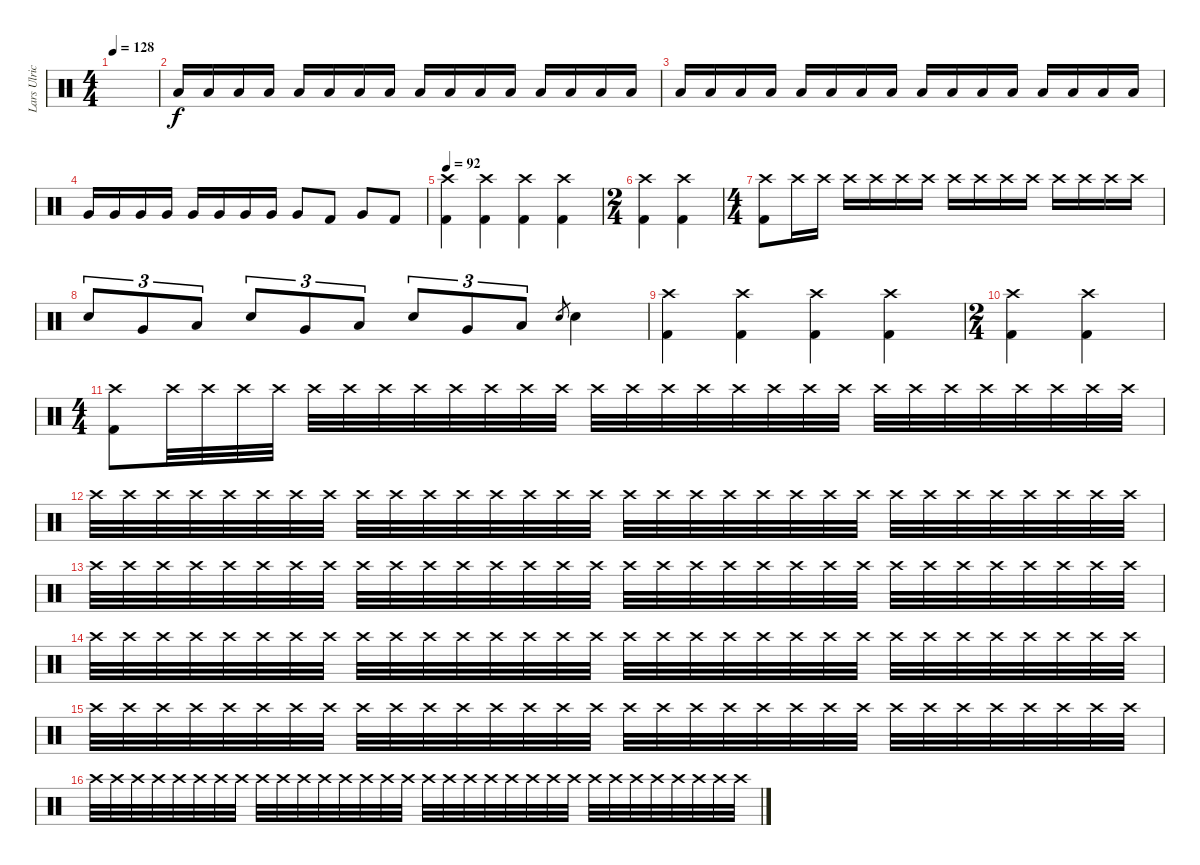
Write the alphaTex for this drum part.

\track ("Lars Ulrich" "Lars Ulric") {instrument percussion}
\staff {score}
\articulation defaults
\ts (4 4)
\tempo 128
\clef neutral
\ks c
|
"Low Floor Tom (hit)".16 "Low Floor Tom (hit)".16 "Low Floor Tom (hit)".16 "Low Floor Tom (hit)".16 "Low Floor Tom (hit)".16 "Low Floor Tom (hit)".16 "Low Floor Tom (hit)".16 "Low Floor Tom (hit)".16 "Low Floor Tom (hit)".16 "Low Floor Tom (hit)".16 "Low Floor Tom (hit)".16 "Low Floor Tom (hit)".16 "Low Floor Tom (hit)".16 "Low Floor Tom (hit)".16 "Low Floor Tom (hit)".16 "Low Floor Tom (hit)".16 |
"Low Floor Tom (hit)".16 "Low Floor Tom (hit)".16 "Low Floor Tom (hit)".16 "Low Floor Tom (hit)".16 "Low Floor Tom (hit)".16 "Low Floor Tom (hit)".16 "Low Floor Tom (hit)".16 "Low Floor Tom (hit)".16 "Low Floor Tom (hit)".16 "Low Floor Tom (hit)".16 "Low Floor Tom (hit)".16 "Low Floor Tom (hit)".16 "Low Floor Tom (hit)".16 "Low Floor Tom (hit)".16 "Low Floor Tom (hit)".16 "Low Floor Tom (hit)".16 |
"Very Low Tom (hit)".16 "Very Low Tom (hit)".16 "Very Low Tom (hit)".16 "Very Low Tom (hit)".16 "Very Low Tom (hit)".16 "Very Low Tom (hit)".16 "Very Low Tom (hit)".16 "Very Low Tom (hit)".16 "Very Low Tom (hit)".8 "Kick (hit) 2".8 "Very Low Tom (hit)".8 "Kick (hit) 2".8 |
\tempo 92
("Crash high (hit)" "Kick (hit) 2").4 ("Crash high (hit)" "Kick (hit) 2").4 ("Crash high (hit)" "Kick (hit) 2").4 ("Crash high (hit)" "Kick (hit) 2").4 |
\ts (2 4)
("Crash high (hit)" "Kick (hit) 2").4 ("Crash high (hit)" "Kick (hit) 2").4 |
\ts (4 4)
("Crash high (hit)" "Kick (hit) 2").8 "Crash high (hit)".16 "Crash high (hit)".16 "Crash high (hit)".16 "Crash high (hit)".16 "Crash high (hit)".16 "Crash high (hit)".16 "Crash high (hit)".16 "Crash high (hit)".16 "Crash high (hit)".16 "Crash high (hit)".16 "Crash high (hit)".16 "Crash high (hit)".16 "Crash high (hit)".16 "Crash high (hit)".16 |
"Electric Snare (hit)".8{tu (3 2)} "Very Low Tom (hit)".8{tu (3 2)} "Low Floor Tom (hit)".8{tu (3 2)} "Electric Snare (hit)".8{tu (3 2)} "Very Low Tom (hit)".8{tu (3 2)} "Low Floor Tom (hit)".8{tu (3 2)} "Electric Snare (hit)".8{tu (3 2)} "Very Low Tom (hit)".8{tu (3 2)} "Low Floor Tom (hit)".8{tu (3 2)} "Electric Snare (hit)".8{gr} "Electric Snare (hit)".4 |
("Crash high (hit)" "Kick (hit) 2").4 ("Crash high (hit)" "Kick (hit) 2").4 ("Crash high (hit)" "Kick (hit) 2").4 ("Crash high (hit)" "Kick (hit) 2").4 |
\ts (2 4)
("Crash high (hit)" "Kick (hit) 2").4 ("Crash high (hit)" "Kick (hit) 2").4 |
\ts (4 4)
("Crash high (hit)" "Kick (hit) 2").8 "Crash high (hit)".32 "Crash high (hit)".32 "Crash high (hit)".32 "Crash high (hit)".32 "Crash high (hit)".32 "Crash high (hit)".32 "Crash high (hit)".32 "Crash high (hit)".32 "Crash high (hit)".32 "Crash high (hit)".32 "Crash high (hit)".32 "Crash high (hit)".32 "Crash high (hit)".32 "Crash high (hit)".32 "Crash high (hit)".32 "Crash high (hit)".32 "Crash high (hit)".32 "Crash high (hit)".32 "Crash high (hit)".32 "Crash high (hit)".32 "Crash high (hit)".32 "Crash high (hit)".32 "Crash high (hit)".32 "Crash high (hit)".32 "Crash high (hit)".32 "Crash high (hit)".32 "Crash high (hit)".32 "Crash high (hit)".32 |
"Crash high (hit)".32 "Crash high (hit)".32 "Crash high (hit)".32 "Crash high (hit)".32 "Crash high (hit)".32 "Crash high (hit)".32 "Crash high (hit)".32 "Crash high (hit)".32 "Crash high (hit)".32 "Crash high (hit)".32 "Crash high (hit)".32 "Crash high (hit)".32 "Crash high (hit)".32 "Crash high (hit)".32 "Crash high (hit)".32 "Crash high (hit)".32 "Crash high (hit)".32 "Crash high (hit)".32 "Crash high (hit)".32 "Crash high (hit)".32 "Crash high (hit)".32 "Crash high (hit)".32 "Crash high (hit)".32 "Crash high (hit)".32 "Crash high (hit)".32 "Crash high (hit)".32 "Crash high (hit)".32 "Crash high (hit)".32 "Crash high (hit)".32 "Crash high (hit)".32 "Crash high (hit)".32 "Crash high (hit)".32 |
"Crash high (hit)".32 "Crash high (hit)".32 "Crash high (hit)".32 "Crash high (hit)".32 "Crash high (hit)".32 "Crash high (hit)".32 "Crash high (hit)".32 "Crash high (hit)".32 "Crash high (hit)".32 "Crash high (hit)".32 "Crash high (hit)".32 "Crash high (hit)".32 "Crash high (hit)".32 "Crash high (hit)".32 "Crash high (hit)".32 "Crash high (hit)".32 "Crash high (hit)".32 "Crash high (hit)".32 "Crash high (hit)".32 "Crash high (hit)".32 "Crash high (hit)".32 "Crash high (hit)".32 "Crash high (hit)".32 "Crash high (hit)".32 "Crash high (hit)".32 "Crash high (hit)".32 "Crash high (hit)".32 "Crash high (hit)".32 "Crash high (hit)".32 "Crash high (hit)".32 "Crash high (hit)".32 "Crash high (hit)".32 |
"Crash high (hit)".32 "Crash high (hit)".32 "Crash high (hit)".32 "Crash high (hit)".32 "Crash high (hit)".32 "Crash high (hit)".32 "Crash high (hit)".32 "Crash high (hit)".32 "Crash high (hit)".32 "Crash high (hit)".32 "Crash high (hit)".32 "Crash high (hit)".32 "Crash high (hit)".32 "Crash high (hit)".32 "Crash high (hit)".32 "Crash high (hit)".32 "Crash high (hit)".32 "Crash high (hit)".32 "Crash high (hit)".32 "Crash high (hit)".32 "Crash high (hit)".32 "Crash high (hit)".32 "Crash high (hit)".32 "Crash high (hit)".32 "Crash high (hit)".32 "Crash high (hit)".32 "Crash high (hit)".32 "Crash high (hit)".32 "Crash high (hit)".32 "Crash high (hit)".32 "Crash high (hit)".32 "Crash high (hit)".32 |
"Crash high (hit)".32 "Crash high (hit)".32 "Crash high (hit)".32 "Crash high (hit)".32 "Crash high (hit)".32 "Crash high (hit)".32 "Crash high (hit)".32 "Crash high (hit)".32 "Crash high (hit)".32 "Crash high (hit)".32 "Crash high (hit)".32 "Crash high (hit)".32 "Crash high (hit)".32 "Crash high (hit)".32 "Crash high (hit)".32 "Crash high (hit)".32 "Crash high (hit)".32 "Crash high (hit)".32 "Crash high (hit)".32 "Crash high (hit)".32 "Crash high (hit)".32 "Crash high (hit)".32 "Crash high (hit)".32 "Crash high (hit)".32 "Crash high (hit)".32 "Crash high (hit)".32 "Crash high (hit)".32 "Crash high (hit)".32 "Crash high (hit)".32 "Crash high (hit)".32 "Crash high (hit)".32 "Crash high (hit)".32 |
"Crash high (hit)".32 "Crash high (hit)".32 "Crash high (hit)".32 "Crash high (hit)".32 "Crash high (hit)".32 "Crash high (hit)".32 "Crash high (hit)".32 "Crash high (hit)".32 "Crash high (hit)".32 "Crash high (hit)".32 "Crash high (hit)".32 "Crash high (hit)".32 "Crash high (hit)".32 "Crash high (hit)".32 "Crash high (hit)".32 "Crash high (hit)".32 "Crash high (hit)".32 "Crash high (hit)".32 "Crash high (hit)".32 "Crash high (hit)".32 "Crash high (hit)".32 "Crash high (hit)".32 "Crash high (hit)".32 "Crash high (hit)".32 "Crash high (hit)".32 "Crash high (hit)".32 "Crash high (hit)".32 "Crash high (hit)".32 "Crash high (hit)".32 "Crash high (hit)".32 "Crash high (hit)".32 "Crash high (hit)".32
